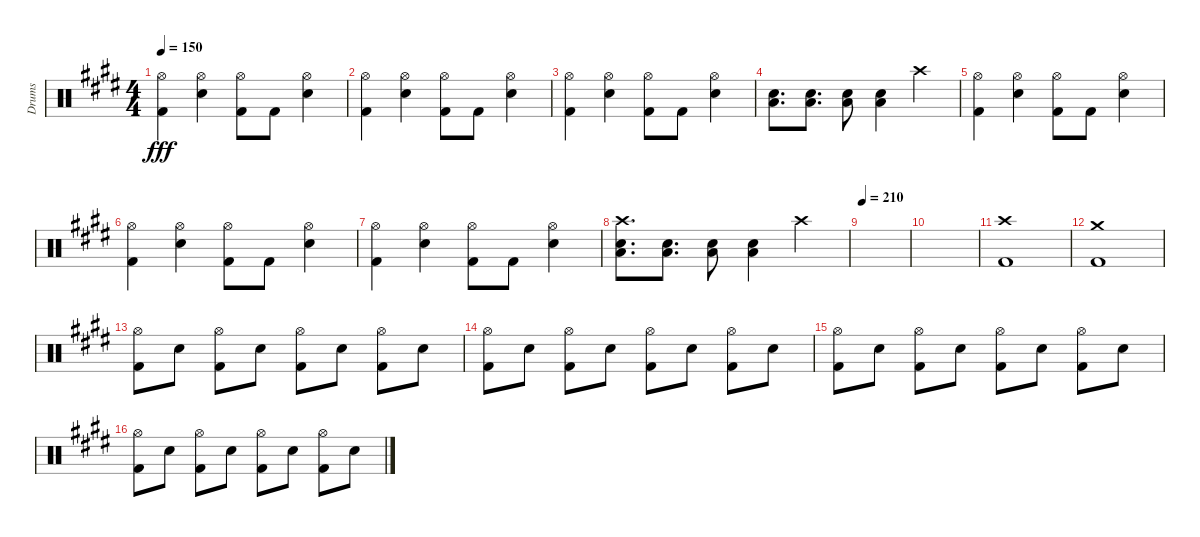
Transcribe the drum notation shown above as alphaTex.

\track ("Drums" "Drums") {instrument percussion}
\staff {score}
\articulation defaults
\ts (4 4)
\tempo 150
\clef neutral
\ks e
("Hi-Hat (open)" "Kick (hit) 2").4{dy fff} ("Hi-Hat (open)" "Snare (hit) 2").4 ("Hi-Hat (open)" "Kick (hit) 2").8 "Kick (hit) 2".8 ("Hi-Hat (open)" "Snare (hit) 2").4 |
("Hi-Hat (open)" "Kick (hit) 2").4 ("Hi-Hat (open)" "Snare (hit) 2").4 ("Hi-Hat (open)" "Kick (hit) 2").8 "Kick (hit) 2".8 ("Hi-Hat (open)" "Snare (hit) 2").4 |
("Hi-Hat (open)" "Kick (hit) 2").4 ("Hi-Hat (open)" "Snare (hit) 2").4 ("Hi-Hat (open)" "Kick (hit) 2").8 "Kick (hit) 2".8 ("Hi-Hat (open)" "Snare (hit) 2").4 |
("Snare (hit) 2" "Low Floor Tom (hit)").8{d} ("Snare (hit) 2" "Low Floor Tom (hit)").8{d} ("Snare (hit) 2" "Low Floor Tom (hit)").8 ("Snare (hit) 2" "Low Floor Tom (hit)").4 "Crash high (hit)".4 |
("Hi-Hat (open)" "Kick (hit) 2").4 ("Hi-Hat (open)" "Snare (hit) 2").4 ("Hi-Hat (open)" "Kick (hit) 2").8 "Kick (hit) 2".8 ("Hi-Hat (open)" "Snare (hit) 2").4 |
("Hi-Hat (open)" "Kick (hit) 2").4 ("Hi-Hat (open)" "Snare (hit) 2").4 ("Hi-Hat (open)" "Kick (hit) 2").8 "Kick (hit) 2".8 ("Hi-Hat (open)" "Snare (hit) 2").4 |
("Hi-Hat (open)" "Kick (hit) 2").4 ("Hi-Hat (open)" "Snare (hit) 2").4 ("Hi-Hat (open)" "Kick (hit) 2").8 "Kick (hit) 2".8 ("Hi-Hat (open)" "Snare (hit) 2").4 |
("Crash high (hit)" "Snare (hit) 2" "Low Floor Tom (hit)").8{d} ("Snare (hit) 2" "Low Floor Tom (hit)").8{d} ("Snare (hit) 2" "Low Floor Tom (hit)").8 ("Snare (hit) 2" "Low Floor Tom (hit)").4 "Crash high (hit)".4 |
\tempo 210
|
|
("Crash high (hit)" "Kick (hit) 2").1 |
("Crash medium (hit)" "Kick (hit) 2").1 |
("Hi-Hat (open)" "Kick (hit) 2").8 "Snare (hit) 2".8 ("Hi-Hat (open)" "Kick (hit) 2").8 "Snare (hit) 2".8 ("Hi-Hat (open)" "Kick (hit) 2").8 "Snare (hit) 2".8 ("Hi-Hat (open)" "Kick (hit) 2").8 "Snare (hit) 2".8 |
("Hi-Hat (open)" "Kick (hit) 2").8 "Snare (hit) 2".8 ("Hi-Hat (open)" "Kick (hit) 2").8 "Snare (hit) 2".8 ("Hi-Hat (open)" "Kick (hit) 2").8 "Snare (hit) 2".8 ("Hi-Hat (open)" "Kick (hit) 2").8 "Snare (hit) 2".8 |
("Hi-Hat (open)" "Kick (hit) 2").8 "Snare (hit) 2".8 ("Hi-Hat (open)" "Kick (hit) 2").8 "Snare (hit) 2".8 ("Hi-Hat (open)" "Kick (hit) 2").8 "Snare (hit) 2".8 ("Hi-Hat (open)" "Kick (hit) 2").8 "Snare (hit) 2".8 |
("Hi-Hat (open)" "Kick (hit) 2").8 "Snare (hit) 2".8 ("Hi-Hat (open)" "Kick (hit) 2").8 "Snare (hit) 2".8 ("Hi-Hat (open)" "Kick (hit) 2").8 "Snare (hit) 2".8 ("Hi-Hat (open)" "Kick (hit) 2").8 "Snare (hit) 2".8
